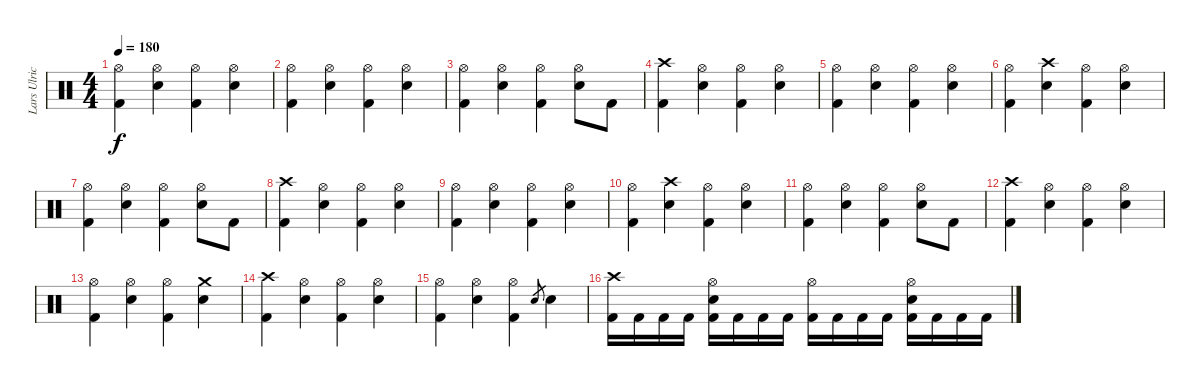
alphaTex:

\track ("Lars Ulrich" "Lars Ulric") {instrument percussion}
\staff {score}
\articulation defaults
\ts (4 4)
\tempo 180
\clef neutral
\ks c
("Hi-Hat (open)" "Kick (hit) 2").4{dy f} ("Hi-Hat (open)" "Electric Snare (hit)").4 ("Hi-Hat (open)" "Kick (hit) 2").4 ("Hi-Hat (open)" "Electric Snare (hit)").4 |
("Hi-Hat (open)" "Kick (hit) 2").4 ("Hi-Hat (open)" "Electric Snare (hit)").4 ("Hi-Hat (open)" "Kick (hit) 2").4 ("Hi-Hat (open)" "Electric Snare (hit)").4 |
("Hi-Hat (open)" "Kick (hit) 2").4 ("Hi-Hat (open)" "Electric Snare (hit)").4 ("Hi-Hat (open)" "Kick (hit) 2").4 ("Hi-Hat (open)" "Electric Snare (hit)").8 "Kick (hit) 2".8 |
("Crash high (hit)" "Kick (hit) 2").4 ("Hi-Hat (open)" "Electric Snare (hit)").4 ("Hi-Hat (open)" "Kick (hit) 2").4 ("Hi-Hat (open)" "Electric Snare (hit)").4 |
("Hi-Hat (open)" "Kick (hit) 2").4 ("Hi-Hat (open)" "Electric Snare (hit)").4 ("Hi-Hat (open)" "Kick (hit) 2").4 ("Hi-Hat (open)" "Electric Snare (hit)").4 |
("Hi-Hat (open)" "Kick (hit) 2").4 ("Crash high (hit)" "Electric Snare (hit)").4 ("Hi-Hat (open)" "Kick (hit) 2").4 ("Hi-Hat (open)" "Electric Snare (hit)").4 |
("Hi-Hat (open)" "Kick (hit) 2").4 ("Hi-Hat (open)" "Electric Snare (hit)").4 ("Hi-Hat (open)" "Kick (hit) 2").4 ("Hi-Hat (open)" "Electric Snare (hit)").8 "Kick (hit) 2".8 |
("Crash high (hit)" "Kick (hit) 2").4 ("Hi-Hat (open)" "Electric Snare (hit)").4 ("Hi-Hat (open)" "Kick (hit) 2").4 ("Hi-Hat (open)" "Electric Snare (hit)").4 |
("Hi-Hat (open)" "Kick (hit) 2").4 ("Hi-Hat (open)" "Electric Snare (hit)").4 ("Hi-Hat (open)" "Kick (hit) 2").4 ("Hi-Hat (open)" "Electric Snare (hit)").4 |
("Hi-Hat (open)" "Kick (hit) 2").4 ("Crash high (hit)" "Electric Snare (hit)").4 ("Hi-Hat (open)" "Kick (hit) 2").4 ("Hi-Hat (open)" "Electric Snare (hit)").4 |
("Hi-Hat (open)" "Kick (hit) 2").4 ("Hi-Hat (open)" "Electric Snare (hit)").4 ("Hi-Hat (open)" "Kick (hit) 2").4 ("Hi-Hat (open)" "Electric Snare (hit)").8 "Kick (hit) 2".8 |
("Crash high (hit)" "Kick (hit) 2").4 ("Hi-Hat (open)" "Electric Snare (hit)").4 ("Hi-Hat (open)" "Kick (hit) 2").4 ("Hi-Hat (open)" "Electric Snare (hit)").4 |
("Hi-Hat (open)" "Kick (hit) 2").4 ("Hi-Hat (open)" "Electric Snare (hit)").4 ("Hi-Hat (open)" "Kick (hit) 2").4 ("Crash medium (hit)" "Electric Snare (hit)").4 |
("Crash high (hit)" "Kick (hit) 2").4 ("Hi-Hat (open)" "Electric Snare (hit)").4 ("Hi-Hat (open)" "Kick (hit) 2").4 ("Hi-Hat (open)" "Electric Snare (hit)").4 |
("Hi-Hat (open)" "Kick (hit) 2").4 ("Hi-Hat (open)" "Electric Snare (hit)").4 ("Hi-Hat (open)" "Kick (hit) 2").4 "Electric Snare (hit)".8{gr} "Electric Snare (hit)".4 |
("Crash high (hit)" "Kick (hit) 2").16 "Kick (hit) 2".16 "Kick (hit) 2".16 "Kick (hit) 2".16 ("Hi-Hat (open)" "Electric Snare (hit)" "Kick (hit) 2").16 "Kick (hit) 2".16 "Kick (hit) 2".16 "Kick (hit) 2".16 ("Hi-Hat (open)" "Kick (hit) 2").16 "Kick (hit) 2".16 "Kick (hit) 2".16 "Kick (hit) 2".16 ("Hi-Hat (open)" "Electric Snare (hit)" "Kick (hit) 2").16 "Kick (hit) 2".16 "Kick (hit) 2".16 "Kick (hit) 2".16
